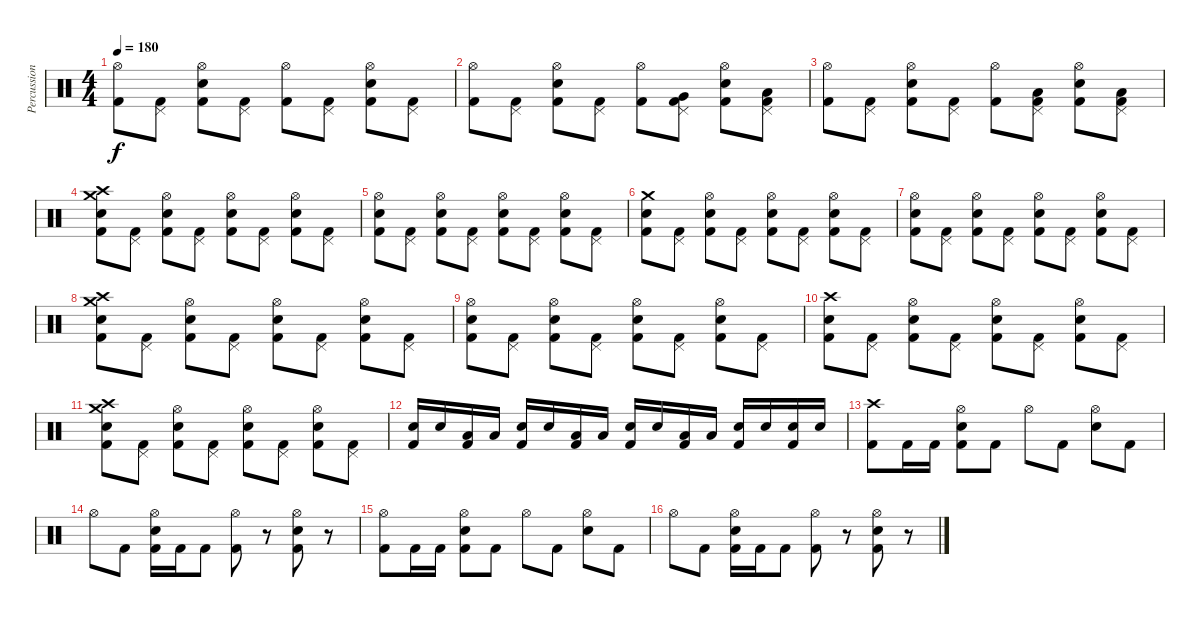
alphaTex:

\track ("Percussion" "Percussion") {instrument percussion}
\staff {score}
\articulation defaults
\ts (4 4)
\tempo 180
\clef neutral
\ks c
("Hi-Hat (open)" "Kick (hit) 2").8{dy f} ("Pedal Hi-Hat (hit)" "Kick (hit) 2").8 ("Hi-Hat (open)" "Electric Snare (hit)" "Kick (hit) 2").8 ("Pedal Hi-Hat (hit)" "Kick (hit) 2").8 ("Hi-Hat (open)" "Kick (hit) 2").8 ("Pedal Hi-Hat (hit)" "Kick (hit) 2").8 ("Hi-Hat (open)" "Electric Snare (hit)" "Kick (hit) 2").8 ("Pedal Hi-Hat (hit)" "Kick (hit) 2").8 |
("Hi-Hat (open)" "Kick (hit) 2").8 ("Pedal Hi-Hat (hit)" "Kick (hit) 2").8 ("Hi-Hat (open)" "Electric Snare (hit)" "Kick (hit) 2").8 ("Pedal Hi-Hat (hit)" "Kick (hit) 2").8 ("Hi-Hat (open)" "Kick (hit) 2").8 ("Pedal Hi-Hat (hit)" "Very Low Tom (hit)" "Kick (hit) 2").8 ("Hi-Hat (open)" "Electric Snare (hit)" "Kick (hit) 2").8 ("Pedal Hi-Hat (hit)" "Low Floor Tom (hit)" "Kick (hit) 2").8 |
("Hi-Hat (open)" "Kick (hit) 2").8 ("Pedal Hi-Hat (hit)" "Kick (hit) 2").8 ("Hi-Hat (open)" "Electric Snare (hit)" "Kick (hit) 2").8 ("Pedal Hi-Hat (hit)" "Kick (hit) 2").8 ("Hi-Hat (open)" "Kick (hit) 2").8 ("Pedal Hi-Hat (hit)" "Low Floor Tom (hit)" "Kick (hit) 2").8 ("Hi-Hat (open)" "Electric Snare (hit)" "Kick (hit) 2").8 ("Pedal Hi-Hat (hit)" "Low Floor Tom (hit)" "Kick (hit) 2").8 |
("Crash high (hit)" "Crash medium (hit)" "Electric Snare (hit)" "Kick (hit) 2").8 ("Pedal Hi-Hat (hit)" "Kick (hit) 2").8 ("Hi-Hat (open)" "Electric Snare (hit)" "Kick (hit) 2").8 ("Pedal Hi-Hat (hit)" "Kick (hit) 2").8 ("Hi-Hat (open)" "Electric Snare (hit)" "Kick (hit) 2").8 ("Pedal Hi-Hat (hit)" "Kick (hit) 2").8 ("Hi-Hat (open)" "Electric Snare (hit)" "Kick (hit) 2").8 ("Pedal Hi-Hat (hit)" "Kick (hit) 2").8 |
("Hi-Hat (open)" "Electric Snare (hit)" "Kick (hit) 2").8 ("Pedal Hi-Hat (hit)" "Kick (hit) 2").8 ("Hi-Hat (open)" "Electric Snare (hit)" "Kick (hit) 2").8 ("Pedal Hi-Hat (hit)" "Kick (hit) 2").8 ("Hi-Hat (open)" "Electric Snare (hit)" "Kick (hit) 2").8 ("Pedal Hi-Hat (hit)" "Kick (hit) 2").8 ("Hi-Hat (open)" "Electric Snare (hit)" "Kick (hit) 2").8 ("Pedal Hi-Hat (hit)" "Kick (hit) 2").8 |
("Crash medium (hit)" "Electric Snare (hit)" "Kick (hit) 2").8 ("Pedal Hi-Hat (hit)" "Kick (hit) 2").8 ("Hi-Hat (open)" "Electric Snare (hit)" "Kick (hit) 2").8 ("Pedal Hi-Hat (hit)" "Kick (hit) 2").8 ("Hi-Hat (open)" "Electric Snare (hit)" "Kick (hit) 2").8 ("Pedal Hi-Hat (hit)" "Kick (hit) 2").8 ("Hi-Hat (open)" "Electric Snare (hit)" "Kick (hit) 2").8 ("Pedal Hi-Hat (hit)" "Kick (hit) 2").8 |
("Hi-Hat (open)" "Electric Snare (hit)" "Kick (hit) 2").8 ("Pedal Hi-Hat (hit)" "Kick (hit) 2").8 ("Hi-Hat (open)" "Electric Snare (hit)" "Kick (hit) 2").8 ("Pedal Hi-Hat (hit)" "Kick (hit) 2").8 ("Hi-Hat (open)" "Electric Snare (hit)" "Kick (hit) 2").8 ("Pedal Hi-Hat (hit)" "Kick (hit) 2").8 ("Hi-Hat (open)" "Electric Snare (hit)" "Kick (hit) 2").8 ("Pedal Hi-Hat (hit)" "Kick (hit) 2").8 |
("Crash high (hit)" "Crash medium (hit)" "Electric Snare (hit)" "Kick (hit) 2").8 ("Pedal Hi-Hat (hit)" "Kick (hit) 2").8 ("Hi-Hat (open)" "Electric Snare (hit)" "Kick (hit) 2").8 ("Pedal Hi-Hat (hit)" "Kick (hit) 2").8 ("Hi-Hat (open)" "Electric Snare (hit)" "Kick (hit) 2").8 ("Pedal Hi-Hat (hit)" "Kick (hit) 2").8 ("Hi-Hat (open)" "Electric Snare (hit)" "Kick (hit) 2").8 ("Pedal Hi-Hat (hit)" "Kick (hit) 2").8 |
("Hi-Hat (open)" "Electric Snare (hit)" "Kick (hit) 2").8 ("Pedal Hi-Hat (hit)" "Kick (hit) 2").8 ("Hi-Hat (open)" "Electric Snare (hit)" "Kick (hit) 2").8 ("Pedal Hi-Hat (hit)" "Kick (hit) 2").8 ("Hi-Hat (open)" "Electric Snare (hit)" "Kick (hit) 2").8 ("Pedal Hi-Hat (hit)" "Kick (hit) 2").8 ("Hi-Hat (open)" "Electric Snare (hit)" "Kick (hit) 2").8 ("Pedal Hi-Hat (hit)" "Kick (hit) 2").8 |
("Crash high (hit)" "Electric Snare (hit)" "Kick (hit) 2").8 ("Pedal Hi-Hat (hit)" "Kick (hit) 2").8 ("Hi-Hat (open)" "Electric Snare (hit)" "Kick (hit) 2").8 ("Pedal Hi-Hat (hit)" "Kick (hit) 2").8 ("Hi-Hat (open)" "Electric Snare (hit)" "Kick (hit) 2").8 ("Pedal Hi-Hat (hit)" "Kick (hit) 2").8 ("Hi-Hat (open)" "Electric Snare (hit)" "Kick (hit) 2").8 ("Pedal Hi-Hat (hit)" "Kick (hit) 2").8 |
("Crash high (hit)" "Crash medium (hit)" "Electric Snare (hit)" "Kick (hit) 2").8 ("Pedal Hi-Hat (hit)" "Kick (hit) 2").8 ("Hi-Hat (open)" "Electric Snare (hit)" "Kick (hit) 2").8 ("Pedal Hi-Hat (hit)" "Kick (hit) 2").8 ("Hi-Hat (open)" "Electric Snare (hit)" "Kick (hit) 2").8 ("Pedal Hi-Hat (hit)" "Kick (hit) 2").8 ("Hi-Hat (open)" "Electric Snare (hit)" "Kick (hit) 2").8 ("Pedal Hi-Hat (hit)" "Kick (hit) 2").8 |
("Electric Snare (hit)" "Kick (hit) 2").16 "Electric Snare (hit)".16 ("Low Floor Tom (hit)" "Kick (hit) 2").16 "Low Floor Tom (hit)".16 ("Electric Snare (hit)" "Kick (hit) 2").16 "Electric Snare (hit)".16 ("Low Floor Tom (hit)" "Kick (hit) 2").16 "Low Floor Tom (hit)".16 ("Electric Snare (hit)" "Kick (hit) 2").16 "Electric Snare (hit)".16 ("Low Floor Tom (hit)" "Kick (hit) 2").16 "Low Floor Tom (hit)".16 ("Electric Snare (hit)" "Kick (hit) 2").16 "Electric Snare (hit)".16 ("Electric Snare (hit)" "Kick (hit) 2").16 "Electric Snare (hit)".16 |
("Crash high (hit)" "Kick (hit) 2").8 "Kick (hit) 2".16 "Kick (hit) 2".16 ("Hi-Hat (open)" "Electric Snare (hit)" "Kick (hit) 2").8 "Kick (hit) 2".8 "Hi-Hat (open)".8 "Kick (hit) 2".8 ("Hi-Hat (open)" "Electric Snare (hit)").8 "Kick (hit) 2".8 |
"Hi-Hat (open)".8 "Kick (hit) 2".8 ("Hi-Hat (open)" "Electric Snare (hit)" "Kick (hit) 2").16 "Kick (hit) 2".16 "Kick (hit) 2".8 ("Hi-Hat (open)" "Kick (hit) 2").8 r.8 ("Hi-Hat (open)" "Electric Snare (hit)" "Kick (hit) 2").8 r.8 |
("Hi-Hat (open)" "Kick (hit) 2").8 "Kick (hit) 2".16 "Kick (hit) 2".16 ("Hi-Hat (open)" "Electric Snare (hit)" "Kick (hit) 2").8 "Kick (hit) 2".8 "Hi-Hat (open)".8 "Kick (hit) 2".8 ("Hi-Hat (open)" "Electric Snare (hit)").8 "Kick (hit) 2".8 |
"Hi-Hat (open)".8 "Kick (hit) 2".8 ("Hi-Hat (open)" "Electric Snare (hit)" "Kick (hit) 2").16 "Kick (hit) 2".16 "Kick (hit) 2".8 ("Hi-Hat (open)" "Kick (hit) 2").8 r.8 ("Hi-Hat (open)" "Electric Snare (hit)" "Kick (hit) 2").8 r.8
